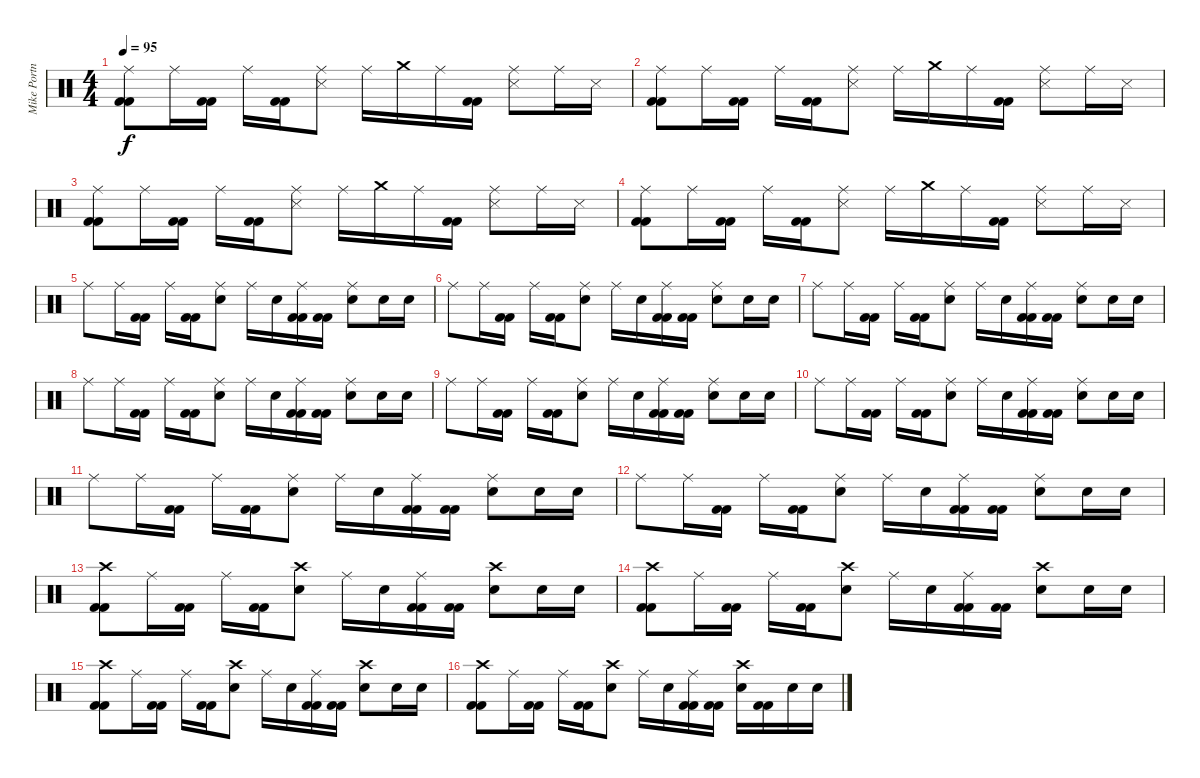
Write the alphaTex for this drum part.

\track ("Mike Portnoy" "Mike Portn") {instrument percussion}
\staff {score}
\articulation defaults
\ts (4 4)
\tempo 95
\clef neutral
\ks c
("Ride (middle)" "Kick (hit) 2" "Kick (hit) 2").8{dy f} "Ride (middle)".16 ("Kick (hit) 2" "Kick (hit) 2").16 "Ride (middle)".16 ("Kick (hit) 2" "Kick (hit) 2").16 ("Ride (middle)" "Snare (side stick) 3").8 "Ride (middle)".16 "Crash medium (hit)".16 "Ride (middle)".16 ("Kick (hit) 2" "Kick (hit) 2").16 ("Ride (middle)" "Snare (side stick) 3").8 "Ride (middle)".16 "Snare (side stick) 3".16 |
("Ride (middle)" "Kick (hit) 2" "Kick (hit) 2").8 "Ride (middle)".16 ("Kick (hit) 2" "Kick (hit) 2").16 "Ride (middle)".16 ("Kick (hit) 2" "Kick (hit) 2").16 ("Ride (middle)" "Snare (side stick) 3").8 "Ride (middle)".16 "Crash medium (hit)".16 "Ride (middle)".16 ("Kick (hit) 2" "Kick (hit) 2").16 ("Ride (middle)" "Snare (side stick) 3").8 "Ride (middle)".16 "Snare (side stick) 3".16 |
("Ride (middle)" "Kick (hit) 2" "Kick (hit) 2").8 "Ride (middle)".16 ("Kick (hit) 2" "Kick (hit) 2").16 "Ride (middle)".16 ("Kick (hit) 2" "Kick (hit) 2").16 ("Ride (middle)" "Snare (side stick) 3").8 "Ride (middle)".16 "Crash medium (hit)".16 "Ride (middle)".16 ("Kick (hit) 2" "Kick (hit) 2").16 ("Ride (middle)" "Snare (side stick) 3").8 "Ride (middle)".16 "Snare (side stick) 3".16 |
("Ride (middle)" "Kick (hit) 2" "Kick (hit) 2").8 "Ride (middle)".16 ("Kick (hit) 2" "Kick (hit) 2").16 "Ride (middle)".16 ("Kick (hit) 2" "Kick (hit) 2").16 ("Ride (middle)" "Snare (side stick) 3").8 "Ride (middle)".16 "Crash medium (hit)".16 "Ride (middle)".16 ("Kick (hit) 2" "Kick (hit) 2").16 ("Ride (middle)" "Snare (side stick) 3").8 "Ride (middle)".16 "Snare (side stick) 3".16 |
"Ride (middle)".8 "Ride (middle)".16 ("Kick (hit) 2" "Kick (hit) 2").16 "Ride (middle)".16 ("Kick (hit) 2" "Kick (hit) 2").16 ("Ride (middle)" "Snare (hit) 2").8 "Ride (middle)".16 "Snare (hit) 2".16 ("Ride (middle)" "Kick (hit) 2" "Kick (hit) 2").16 ("Kick (hit) 2" "Kick (hit) 2").16 ("Ride (middle)" "Snare (hit) 2").8 "Snare (hit) 2".16 "Snare (hit) 2".16 |
"Ride (middle)".8 "Ride (middle)".16 ("Kick (hit) 2" "Kick (hit) 2").16 "Ride (middle)".16 ("Kick (hit) 2" "Kick (hit) 2").16 ("Ride (middle)" "Snare (hit) 2").8 "Ride (middle)".16 "Snare (hit) 2".16 ("Ride (middle)" "Kick (hit) 2" "Kick (hit) 2").16 ("Kick (hit) 2" "Kick (hit) 2").16 ("Ride (middle)" "Snare (hit) 2").8 "Snare (hit) 2".16 "Snare (hit) 2".16 |
"Ride (middle)".8 "Ride (middle)".16 ("Kick (hit) 2" "Kick (hit) 2").16 "Ride (middle)".16 ("Kick (hit) 2" "Kick (hit) 2").16 ("Ride (middle)" "Snare (hit) 2").8 "Ride (middle)".16 "Snare (hit) 2".16 ("Ride (middle)" "Kick (hit) 2" "Kick (hit) 2").16 ("Kick (hit) 2" "Kick (hit) 2").16 ("Ride (middle)" "Snare (hit) 2").8 "Snare (hit) 2".16 "Snare (hit) 2".16 |
"Ride (middle)".8 "Ride (middle)".16 ("Kick (hit) 2" "Kick (hit) 2").16 "Ride (middle)".16 ("Kick (hit) 2" "Kick (hit) 2").16 ("Ride (middle)" "Snare (hit) 2").8 "Ride (middle)".16 "Snare (hit) 2".16 ("Ride (middle)" "Kick (hit) 2" "Kick (hit) 2").16 ("Kick (hit) 2" "Kick (hit) 2").16 ("Ride (middle)" "Snare (hit) 2").8 "Snare (hit) 2".16 "Snare (hit) 2".16 |
"Ride (middle)".8 "Ride (middle)".16 ("Kick (hit) 2" "Kick (hit) 2").16 "Ride (middle)".16 ("Kick (hit) 2" "Kick (hit) 2").16 ("Ride (middle)" "Snare (hit) 2").8 "Ride (middle)".16 "Snare (hit) 2".16 ("Ride (middle)" "Kick (hit) 2" "Kick (hit) 2").16 ("Kick (hit) 2" "Kick (hit) 2").16 ("Ride (middle)" "Snare (hit) 2").8 "Snare (hit) 2".16 "Snare (hit) 2".16 |
"Ride (middle)".8 "Ride (middle)".16 ("Kick (hit) 2" "Kick (hit) 2").16 "Ride (middle)".16 ("Kick (hit) 2" "Kick (hit) 2").16 ("Ride (middle)" "Snare (hit) 2").8 "Ride (middle)".16 "Snare (hit) 2".16 ("Ride (middle)" "Kick (hit) 2" "Kick (hit) 2").16 ("Kick (hit) 2" "Kick (hit) 2").16 ("Ride (middle)" "Snare (hit) 2").8 "Snare (hit) 2".16 "Snare (hit) 2".16 |
"Ride (middle)".8 "Ride (middle)".16 ("Kick (hit) 2" "Kick (hit) 2").16 "Ride (middle)".16 ("Kick (hit) 2" "Kick (hit) 2").16 ("Ride (middle)" "Snare (hit) 2").8 "Ride (middle)".16 "Snare (hit) 2".16 ("Ride (middle)" "Kick (hit) 2" "Kick (hit) 2").16 ("Kick (hit) 2" "Kick (hit) 2").16 ("Ride (middle)" "Snare (hit) 2").8 "Snare (hit) 2".16 "Snare (hit) 2".16 |
"Ride (middle)".8 "Ride (middle)".16 ("Kick (hit) 2" "Kick (hit) 2").16 "Ride (middle)".16 ("Kick (hit) 2" "Kick (hit) 2").16 ("Ride (middle)" "Snare (hit) 2").8 "Ride (middle)".16 "Snare (hit) 2".16 ("Ride (middle)" "Kick (hit) 2" "Kick (hit) 2").16 ("Kick (hit) 2" "Kick (hit) 2").16 ("Ride (middle)" "Snare (hit) 2").8 "Snare (hit) 2".16 "Snare (hit) 2".16 |
("Crash high (hit)" "Kick (hit) 2" "Kick (hit) 2").8 "Ride (middle)".16 ("Kick (hit) 2" "Kick (hit) 2").16 "Ride (middle)".16 ("Kick (hit) 2" "Kick (hit) 2").16 ("Crash high (hit)" "Snare (hit) 2").8 "Ride (middle)".16 "Snare (hit) 2".16 ("Ride (middle)" "Kick (hit) 2" "Kick (hit) 2").16 ("Kick (hit) 2" "Kick (hit) 2").16 ("Crash high (hit)" "Snare (hit) 2").8 "Snare (hit) 2".16 "Snare (hit) 2".16 |
("Crash high (hit)" "Kick (hit) 2" "Kick (hit) 2").8 "Ride (middle)".16 ("Kick (hit) 2" "Kick (hit) 2").16 "Ride (middle)".16 ("Kick (hit) 2" "Kick (hit) 2").16 ("Crash high (hit)" "Snare (hit) 2").8 "Ride (middle)".16 "Snare (hit) 2".16 ("Ride (middle)" "Kick (hit) 2" "Kick (hit) 2").16 ("Kick (hit) 2" "Kick (hit) 2").16 ("Crash high (hit)" "Snare (hit) 2").8 "Snare (hit) 2".16 "Snare (hit) 2".16 |
("Crash high (hit)" "Kick (hit) 2" "Kick (hit) 2").8 "Ride (middle)".16 ("Kick (hit) 2" "Kick (hit) 2").16 "Ride (middle)".16 ("Kick (hit) 2" "Kick (hit) 2").16 ("Crash high (hit)" "Snare (hit) 2").8 "Ride (middle)".16 "Snare (hit) 2".16 ("Ride (middle)" "Kick (hit) 2" "Kick (hit) 2").16 ("Kick (hit) 2" "Kick (hit) 2").16 ("Crash high (hit)" "Snare (hit) 2").8 "Snare (hit) 2".16 "Snare (hit) 2".16 |
("Crash high (hit)" "Kick (hit) 2" "Kick (hit) 2").8 "Ride (middle)".16 ("Kick (hit) 2" "Kick (hit) 2").16 "Ride (middle)".16 ("Kick (hit) 2" "Kick (hit) 2").16 ("Crash high (hit)" "Snare (hit) 2").8 "Ride (middle)".16 "Snare (hit) 2".16 ("Ride (middle)" "Kick (hit) 2" "Kick (hit) 2").16 ("Kick (hit) 2" "Kick (hit) 2").16 ("Crash high (hit)" "Snare (hit) 2").16 ("Kick (hit) 2" "Kick (hit) 2").16 "Snare (hit) 2".16 "Snare (hit) 2".16
